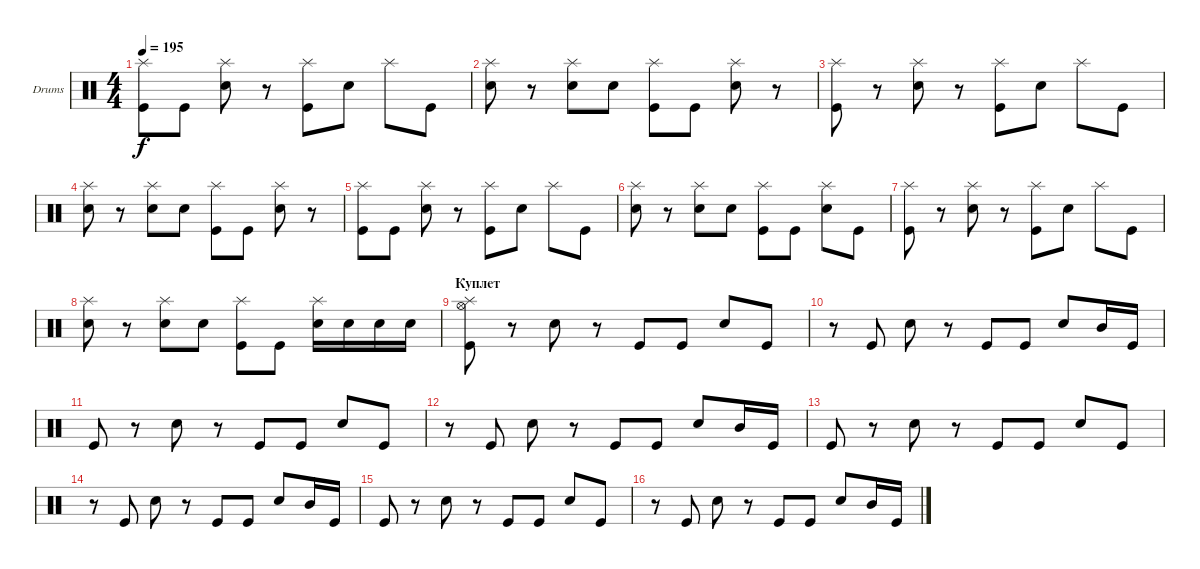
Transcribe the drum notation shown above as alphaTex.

\defaultSystemsLayout 4
\bracketExtendMode groupsimilarinstruments
\firstSystemTrackNameOrientation horizontal
\otherSystemsTrackNameOrientation horizontal
\track ("Drumkit" "Drums") {instrument percussion}
\staff {score}
\articulation defaults
\ts (4 4)
\tempo 195
\clef neutral
\ks c
("Splash (hit)" "Kick (hit)").8{dy f} "Kick (hit)".8 ("Snare (hit) 2" "Splash (hit)").8 r.8 ("Splash (hit)" "Kick (hit)").8 "Snare (hit) 2".8 "Splash (hit)".8 "Kick (hit)".8 |
("Snare (hit) 2" "Splash (hit)").8 r.8 ("Snare (hit) 2" "Splash (hit)").8 "Snare (hit) 2".8 ("Kick (hit)" "Splash (hit)").8 "Kick (hit)".8 ("Snare (hit) 2" "Splash (hit)").8 r.8 |
("Splash (hit)" "Kick (hit)").8 r.8 ("Snare (hit) 2" "Splash (hit)").8 r.8 ("Splash (hit)" "Kick (hit)").8 "Snare (hit) 2".8 "Splash (hit)".8 "Kick (hit)".8 |
("Snare (hit) 2" "Splash (hit)").8 r.8 ("Snare (hit) 2" "Splash (hit)").8 "Snare (hit) 2".8 ("Kick (hit)" "Splash (hit)").8 "Kick (hit)".8 ("Snare (hit) 2" "Splash (hit)").8 r.8 |
("Splash (hit)" "Kick (hit)").8 "Kick (hit)".8 ("Snare (hit) 2" "Splash (hit)").8 r.8 ("Splash (hit)" "Kick (hit)").8 "Snare (hit) 2".8 "Splash (hit)".8 "Kick (hit)".8 |
("Snare (hit) 2" "Splash (hit)").8 r.8 ("Snare (hit) 2" "Splash (hit)").8 "Snare (hit) 2".8 ("Kick (hit)" "Splash (hit)").8 "Kick (hit)".8 ("Snare (hit) 2" "Splash (hit)").8 "Kick (hit)".8 |
("Splash (hit)" "Kick (hit)").8 r.8 ("Snare (hit) 2" "Splash (hit)").8 r.8 ("Splash (hit)" "Kick (hit)").8 "Snare (hit) 2".8 "Splash (hit)".8 "Kick (hit)".8 |
("Snare (hit) 2" "Splash (hit)").8 r.8 ("Snare (hit) 2" "Splash (hit)").8 "Snare (hit) 2".8 ("Kick (hit)" "Splash (hit)").8 "Kick (hit)".8 ("Snare (hit) 2" "Splash (hit)").16 "Snare (hit) 2".16 "Snare (hit) 2".16 "Snare (hit) 2".16 |
\section ("" "Куплет")
("Kick (hit)" "Hi-Hat (open)" "Splash (hit)").8 r.8 "Snare (hit) 2".8 r.8 "Kick (hit)".8 "Kick (hit)".8 "Snare (hit) 2".8 "Kick (hit)".8 |
r.8 "Kick (hit)".8 "Snare (hit) 2".8 r.8 "Kick (hit)".8 "Kick (hit)".8 "Snare (hit) 2".8 "Mid Tom (hit)".16 "Kick (hit)".16 |
"Kick (hit)".8 r.8 "Snare (hit) 2".8 r.8 "Kick (hit)".8 "Kick (hit)".8 "Snare (hit) 2".8 "Kick (hit)".8 |
r.8 "Kick (hit)".8 "Snare (hit) 2".8 r.8 "Kick (hit)".8 "Kick (hit)".8 "Snare (hit) 2".8 "Mid Tom (hit)".16 "Kick (hit)".16 |
"Kick (hit)".8 r.8 "Snare (hit) 2".8 r.8 "Kick (hit)".8 "Kick (hit)".8 "Snare (hit) 2".8 "Kick (hit)".8 |
r.8 "Kick (hit)".8 "Snare (hit) 2".8 r.8 "Kick (hit)".8 "Kick (hit)".8 "Snare (hit) 2".8 "Mid Tom (hit)".16 "Kick (hit)".16 |
"Kick (hit)".8 r.8 "Snare (hit) 2".8 r.8 "Kick (hit)".8 "Kick (hit)".8 "Snare (hit) 2".8 "Kick (hit)".8 |
r.8 "Kick (hit)".8 "Snare (hit) 2".8 r.8 "Kick (hit)".8 "Kick (hit)".8 "Snare (hit) 2".8 "Mid Tom (hit)".16 "Kick (hit)".16
